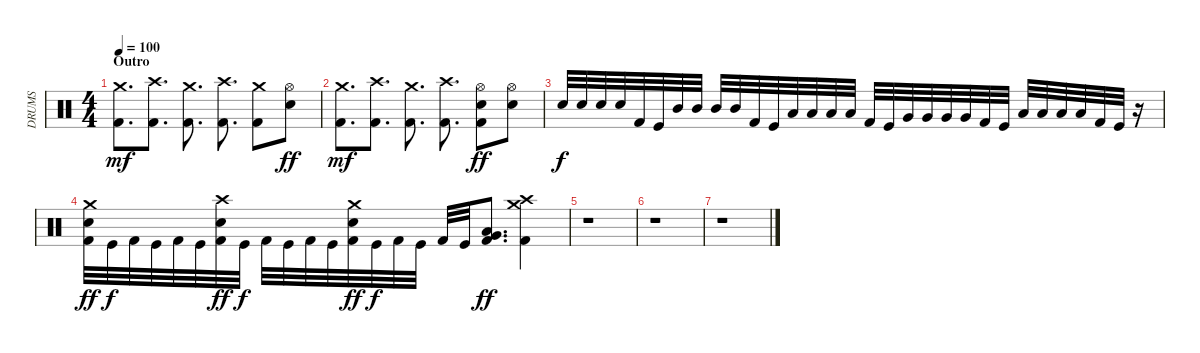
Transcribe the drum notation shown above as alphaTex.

\track ("DRUMS" "DRUMS") {instrument percussion}
\staff {score}
\articulation defaults
\ts (4 4)
\section ("" "Outro")
\tempo 100
\clef neutral
\ks c
("Crash medium (hit)" "Kick (hit) 2").8{d dy mf} ("Crash high (hit)" "Kick (hit) 2").8{d} ("Crash medium (hit)" "Kick (hit) 2").8{d} ("Crash high (hit)" "Kick (hit) 2").8{d} ("Crash medium (hit)" "Kick (hit) 2").8 ("Hi-Hat (open)" "Snare (hit) 2").8{dy ff} |
("Crash medium (hit)" "Kick (hit) 2").8{d dy mf} ("Crash high (hit)" "Kick (hit) 2").8{d} ("Crash medium (hit)" "Kick (hit) 2").8{d} ("Crash high (hit)" "Kick (hit) 2").8{d} ("Hi-Hat (open)" "Snare (hit) 2" "Kick (hit) 2").8{dy ff} ("Hi-Hat (open)" "Snare (hit) 2").8 |
"Electric Snare (hit)".32{dy f} "Snare (hit) 2".32 "Electric Snare (hit)".32 "Snare (hit) 2".32 "Kick (hit) 2".32 "Kick (hit)".32 "Mid Tom (hit)".32 "Mid Tom (hit)".32 "Mid Tom (hit)".32 "Mid Tom (hit)".32 "Kick (hit) 2".32 "Kick (hit)".32 "Low Tom (hit)".32 "Low Tom (hit)".32 "Low Tom (hit)".32 "Low Tom (hit)".32 "Kick (hit) 2".32 "Kick (hit)".32 "Very Low Tom (hit)".32 "Very Low Tom (hit)".32 "Very Low Tom (hit)".32 "Very Low Tom (hit)".32 "Kick (hit) 2".32 "Kick (hit)".32 "Low Floor Tom (hit)".32 "Low Floor Tom (hit)".32 "Low Floor Tom (hit)".32 "Low Floor Tom (hit)".32 "Kick (hit) 2".32 "Kick (hit)".32 r.16 |
("Crash medium (hit)" "Snare (hit) 2" "Kick (hit) 2").32{dy ff} "Kick (hit)".32{dy f} "Kick (hit) 2".32 "Kick (hit)".32 "Kick (hit) 2".32 "Kick (hit)".32 ("Crash high (hit)" "Snare (hit) 2" "Kick (hit) 2").32{dy ff} "Kick (hit)".32{dy f} "Kick (hit) 2".32 "Kick (hit)".32 "Kick (hit) 2".32 "Kick (hit)".32 ("Crash medium (hit)" "Snare (hit) 2" "Kick (hit) 2").32{dy ff} "Kick (hit)".32{dy f} "Kick (hit) 2".32 "Kick (hit)".32 "Kick (hit) 2".32 "Kick (hit)".32 ("Very Low Tom (hit)" "Low Floor Tom (hit)" "Kick (hit) 2").8{d dy ff} ("Crash medium (hit)" "Crash high (hit)" "Kick (hit) 2").4 |
r.1 |
r.1{volume 0} |
r.1
